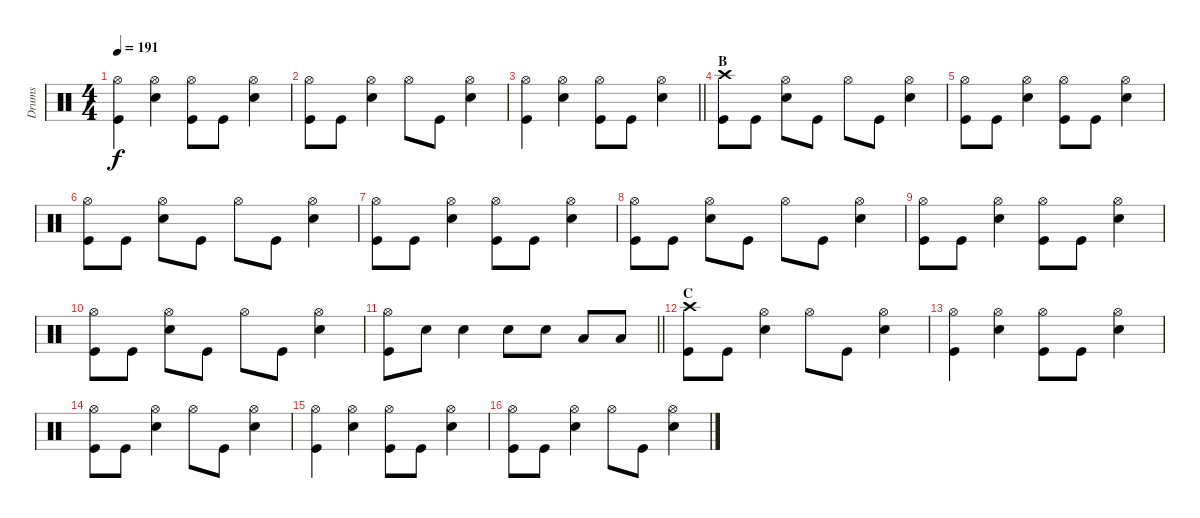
\track ("Drums" "Drums") {instrument percussion}
\staff {score}
\articulation defaults
\ts (4 4)
\tempo 191
\clef neutral
\ks c
("Hi-Hat (open)" "Kick (hit)").4{dy f} ("Hi-Hat (open)" "Electric Snare (hit)").4 ("Hi-Hat (open)" "Kick (hit)").8 "Kick (hit)".8 ("Hi-Hat (open)" "Electric Snare (hit)").4 |
("Hi-Hat (open)" "Kick (hit)").8 "Kick (hit)".8 ("Hi-Hat (open)" "Electric Snare (hit)").4 "Hi-Hat (open)".8 "Kick (hit)".8 ("Hi-Hat (open)" "Electric Snare (hit)").4 |
\barLineRight lightlight
("Hi-Hat (open)" "Kick (hit)").4 ("Hi-Hat (open)" "Electric Snare (hit)").4 ("Hi-Hat (open)" "Kick (hit)").8 "Kick (hit)".8 ("Hi-Hat (open)" "Electric Snare (hit)").4 |
\section ("" "B")
("Crash high (hit)" "Kick (hit)").8 "Kick (hit)".8 ("Hi-Hat (open)" "Electric Snare (hit)").8 "Kick (hit)".8 "Hi-Hat (open)".8 "Kick (hit)".8 ("Hi-Hat (open)" "Electric Snare (hit)").4 |
("Hi-Hat (open)" "Kick (hit)").8 "Kick (hit)".8 ("Hi-Hat (open)" "Electric Snare (hit)").4 ("Hi-Hat (open)" "Kick (hit)").8 "Kick (hit)".8 ("Hi-Hat (open)" "Electric Snare (hit)").4 |
("Hi-Hat (open)" "Kick (hit)").8 "Kick (hit)".8 ("Hi-Hat (open)" "Electric Snare (hit)").8 "Kick (hit)".8 "Hi-Hat (open)".8 "Kick (hit)".8 ("Hi-Hat (open)" "Electric Snare (hit)").4 |
("Hi-Hat (open)" "Kick (hit)").8 "Kick (hit)".8 ("Hi-Hat (open)" "Electric Snare (hit)").4 ("Hi-Hat (open)" "Kick (hit)").8 "Kick (hit)".8 ("Hi-Hat (open)" "Electric Snare (hit)").4 |
("Hi-Hat (open)" "Kick (hit)").8 "Kick (hit)".8 ("Hi-Hat (open)" "Electric Snare (hit)").8 "Kick (hit)".8 "Hi-Hat (open)".8 "Kick (hit)".8 ("Hi-Hat (open)" "Electric Snare (hit)").4 |
("Hi-Hat (open)" "Kick (hit)").8 "Kick (hit)".8 ("Hi-Hat (open)" "Electric Snare (hit)").4 ("Hi-Hat (open)" "Kick (hit)").8 "Kick (hit)".8 ("Hi-Hat (open)" "Electric Snare (hit)").4 |
("Hi-Hat (open)" "Kick (hit)").8 "Kick (hit)".8 ("Hi-Hat (open)" "Electric Snare (hit)").8 "Kick (hit)".8 "Hi-Hat (open)".8 "Kick (hit)".8 ("Hi-Hat (open)" "Electric Snare (hit)").4 |
\barLineRight lightlight
("Hi-Hat (open)" "Kick (hit)").8 "Electric Snare (hit)".8 "Electric Snare (hit)".4 "Electric Snare (hit)".8 "Electric Snare (hit)".8 "Low Tom (hit)".8 "Low Tom (hit)".8 |
\section ("" "C")
("Crash high (hit)" "Kick (hit)").8 "Kick (hit)".8 ("Hi-Hat (open)" "Electric Snare (hit)").4 "Hi-Hat (open)".8 "Kick (hit)".8 ("Hi-Hat (open)" "Electric Snare (hit)").4 |
("Hi-Hat (open)" "Kick (hit)").4 ("Hi-Hat (open)" "Electric Snare (hit)").4 ("Hi-Hat (open)" "Kick (hit)").8 "Kick (hit)".8 ("Hi-Hat (open)" "Electric Snare (hit)").4 |
("Hi-Hat (open)" "Kick (hit)").8 "Kick (hit)".8 ("Hi-Hat (open)" "Electric Snare (hit)").4 "Hi-Hat (open)".8 "Kick (hit)".8 ("Hi-Hat (open)" "Electric Snare (hit)").4 |
("Hi-Hat (open)" "Kick (hit)").4 ("Hi-Hat (open)" "Electric Snare (hit)").4 ("Hi-Hat (open)" "Kick (hit)").8 "Kick (hit)".8 ("Hi-Hat (open)" "Electric Snare (hit)").4 |
("Hi-Hat (open)" "Kick (hit)").8 "Kick (hit)".8 ("Hi-Hat (open)" "Electric Snare (hit)").4 "Hi-Hat (open)".8 "Kick (hit)".8 ("Hi-Hat (open)" "Electric Snare (hit)").4
